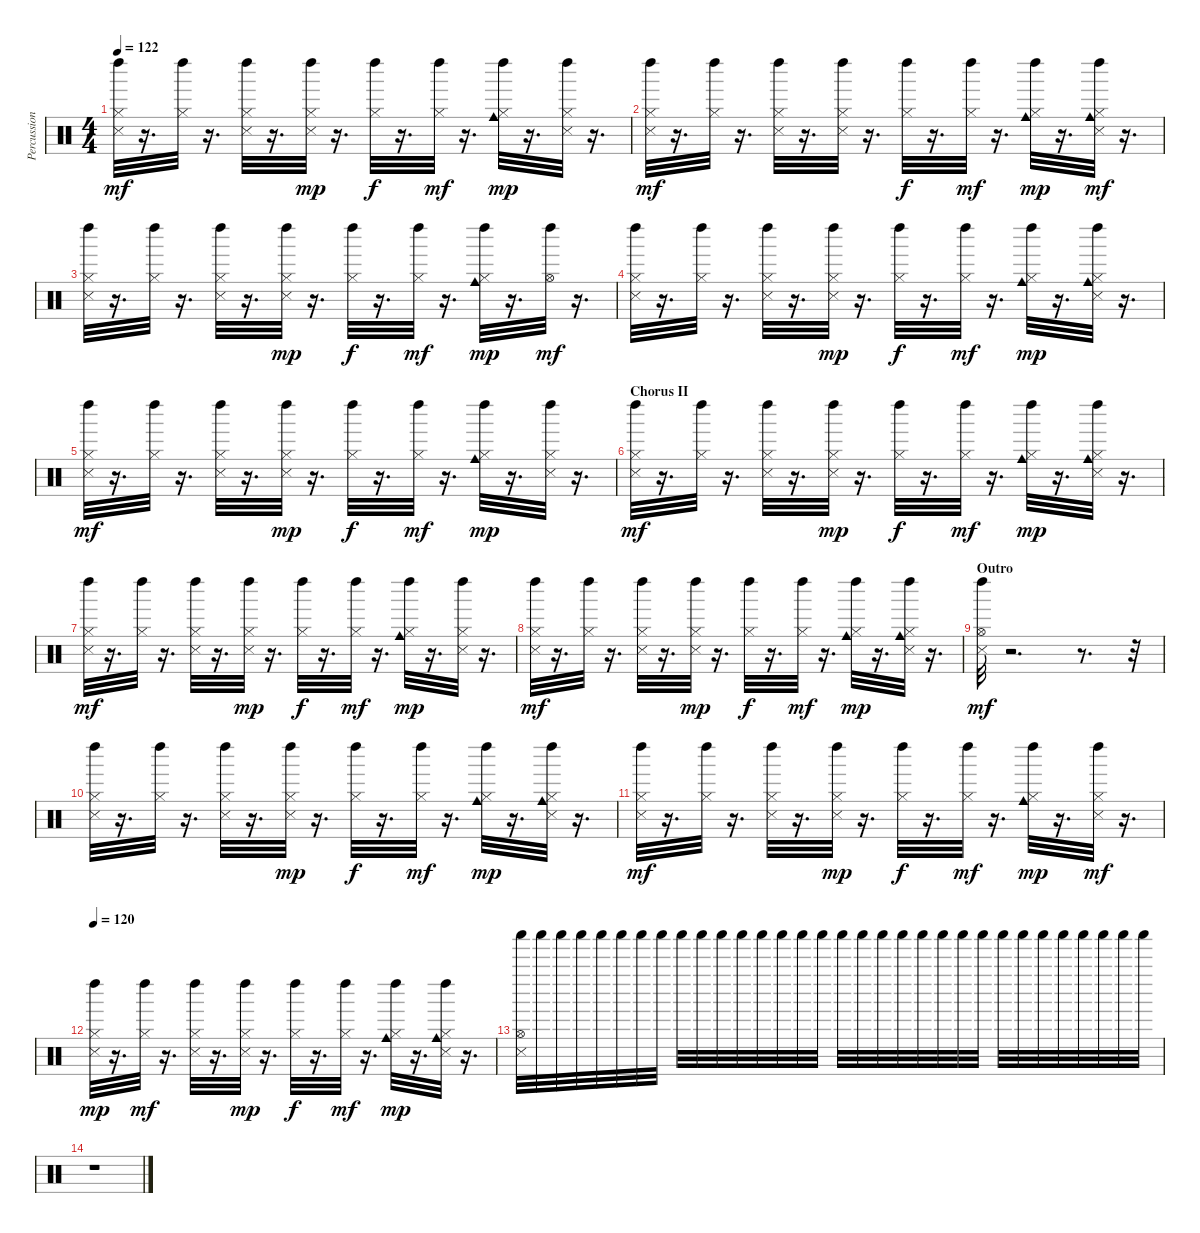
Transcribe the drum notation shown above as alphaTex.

\track ("Percussion" "Percussion") {instrument percussion}
\staff {score}
\articulation defaults
\ts (4 4)
\tempo 122
\clef neutral
\ks c
("Metronome (hit)" "Hi-Hat (closed)" "Left Maraca (hit)").32{dy mf} r.16{d} ("Hi-Hat (closed)" "Left Maraca (hit)").32 r.16{d} ("Snare (side stick) 3" "Hi-Hat (closed)" "Left Maraca (hit)").32 r.16{d} ("Metronome (hit)" "Hi-Hat (closed)" "Left Maraca (hit)").32{dy mp} r.16{d} ("Hi-Hat (closed)" "Left Maraca (hit)").32{dy f} r.16{d} ("Hi-Hat (closed)" "Left Maraca (hit)").32{dy mf} r.16{d} ("Cowbell medium (hit)" "Hi-Hat (closed)" "Left Maraca (hit)").32{dy mp} r.16{d} ("Metronome (hit)" "Hi-Hat (closed)" "Left Maraca (hit)").32 r.16{d} |
("Hi-Hat (closed)" "Left Maraca (hit)" "Metronome (hit)").32{dy mf} r.16{d} ("Hi-Hat (closed)" "Left Maraca (hit)").32 r.16{d} ("Hi-Hat (closed)" "Snare (side stick) 3" "Left Maraca (hit)").32 r.16{d} ("Hi-Hat (closed)" "Left Maraca (hit)" "Metronome (hit)").32 r.16{d} ("Hi-Hat (closed)" "Left Maraca (hit)").32{dy f} r.16{d} ("Hi-Hat (closed)" "Left Maraca (hit)").32{dy mf} r.16{d} ("Hi-Hat (closed)" "Cowbell medium (hit)" "Left Maraca (hit)").32{dy mp} r.16{d} ("Hi-Hat (closed)" "Cowbell medium (hit)" "Left Maraca (hit)" "Metronome (hit)").32{dy mf} r.16{d} |
("Metronome (hit)" "Left Maraca (hit)" "Hi-Hat (closed)").32 r.16{d} ("Left Maraca (hit)" "Hi-Hat (closed)").32 r.16{d} ("Snare (side stick) 3" "Left Maraca (hit)" "Hi-Hat (closed)").32 r.16{d} ("Metronome (hit)" "Left Maraca (hit)" "Hi-Hat (closed)").32{dy mp} r.16{d} ("Left Maraca (hit)" "Hi-Hat (closed)").32{dy f} r.16{d} ("Left Maraca (hit)" "Hi-Hat (closed)").32{dy mf} r.16{d} ("Cowbell medium (hit)" "Left Maraca (hit)" "Hi-Hat (closed)").32{dy mp} r.16{d} ("Left Maraca (hit)" "Hi-Hat (open)").32{dy mf} r.16{d} |
("Hi-Hat (closed)" "Metronome (hit)" "Left Maraca (hit)").32 r.16{d} ("Hi-Hat (closed)" "Left Maraca (hit)").32 r.16{d} ("Hi-Hat (closed)" "Snare (side stick) 3" "Left Maraca (hit)").32 r.16{d} ("Hi-Hat (closed)" "Metronome (hit)" "Left Maraca (hit)").32{dy mp} r.16{d} ("Hi-Hat (closed)" "Left Maraca (hit)").32{dy f} r.16{d} ("Hi-Hat (closed)" "Left Maraca (hit)").32{dy mf} r.16{d} ("Hi-Hat (closed)" "Cowbell medium (hit)" "Left Maraca (hit)").32{dy mp} r.16{d} ("Hi-Hat (closed)" "Cowbell medium (hit)" "Metronome (hit)" "Left Maraca (hit)").32 r.16{d} |
("Metronome (hit)" "Left Maraca (hit)" "Hi-Hat (closed)").32{dy mf} r.16{d} ("Left Maraca (hit)" "Hi-Hat (closed)").32 r.16{d} ("Snare (side stick) 3" "Left Maraca (hit)" "Hi-Hat (closed)").32 r.16{d} ("Metronome (hit)" "Left Maraca (hit)" "Hi-Hat (closed)").32{dy mp} r.16{d} ("Left Maraca (hit)" "Hi-Hat (closed)").32{dy f} r.16{d} ("Left Maraca (hit)" "Hi-Hat (closed)").32{dy mf} r.16{d} ("Cowbell medium (hit)" "Left Maraca (hit)" "Hi-Hat (closed)").32{dy mp} r.16{d} ("Metronome (hit)" "Left Maraca (hit)" "Hi-Hat (closed)").32 r.16{d} |
\section ("" "Chorus II")
("Metronome (hit)" "Hi-Hat (closed)" "Left Maraca (hit)").32{dy mf} r.16{d} ("Hi-Hat (closed)" "Left Maraca (hit)").32 r.16{d} ("Hi-Hat (closed)" "Snare (side stick) 3" "Left Maraca (hit)").32 r.16{d} ("Metronome (hit)" "Hi-Hat (closed)" "Left Maraca (hit)").32{dy mp} r.16{d} ("Hi-Hat (closed)" "Left Maraca (hit)").32{dy f} r.16{d} ("Hi-Hat (closed)" "Left Maraca (hit)").32{dy mf} r.16{d} ("Hi-Hat (closed)" "Cowbell medium (hit)" "Left Maraca (hit)").32{dy mp} r.16{d} ("Metronome (hit)" "Hi-Hat (closed)" "Cowbell medium (hit)" "Left Maraca (hit)").32 r.16{d} |
("Metronome (hit)" "Hi-Hat (closed)" "Left Maraca (hit)").32{dy mf} r.16{d} ("Hi-Hat (closed)" "Left Maraca (hit)").32 r.16{d} ("Snare (side stick) 3" "Hi-Hat (closed)" "Left Maraca (hit)").32 r.16{d} ("Metronome (hit)" "Hi-Hat (closed)" "Left Maraca (hit)").32{dy mp} r.16{d} ("Hi-Hat (closed)" "Left Maraca (hit)").32{dy f} r.16{d} ("Hi-Hat (closed)" "Left Maraca (hit)").32{dy mf} r.16{d} ("Cowbell medium (hit)" "Hi-Hat (closed)" "Left Maraca (hit)").32{dy mp} r.16{d} ("Metronome (hit)" "Hi-Hat (closed)" "Left Maraca (hit)").32 r.16{d} |
("Metronome (hit)" "Hi-Hat (closed)" "Left Maraca (hit)").32{dy mf} r.16{d} ("Hi-Hat (closed)" "Left Maraca (hit)").32 r.16{d} ("Hi-Hat (closed)" "Snare (side stick) 3" "Left Maraca (hit)").32 r.16{d} ("Metronome (hit)" "Hi-Hat (closed)" "Left Maraca (hit)").32{dy mp} r.16{d} ("Hi-Hat (closed)" "Left Maraca (hit)").32{dy f} r.16{d} ("Hi-Hat (closed)" "Left Maraca (hit)").32{dy mf} r.16{d} ("Hi-Hat (closed)" "Cowbell medium (hit)" "Left Maraca (hit)").32{dy mp} r.16{d} ("Metronome (hit)" "Hi-Hat (closed)" "Cowbell medium (hit)" "Left Maraca (hit)").32 r.16{d} |
\section ("" "Outro")
("Metronome (hit)" "Left Maraca (hit)" "Hi-Hat (open)").32{dy mf} r.2{d} r.8{d} r.32 |
("Left Maraca (hit)" "Metronome (hit)" "Hi-Hat (closed)").32 r.16{d} ("Left Maraca (hit)" "Hi-Hat (closed)").32 r.16{d} ("Left Maraca (hit)" "Hi-Hat (closed)" "Snare (side stick) 3").32 r.16{d} ("Left Maraca (hit)" "Metronome (hit)" "Hi-Hat (closed)").32{dy mp} r.16{d} ("Left Maraca (hit)" "Hi-Hat (closed)").32{dy f} r.16{d} ("Left Maraca (hit)" "Hi-Hat (closed)").32{dy mf} r.16{d} ("Left Maraca (hit)" "Hi-Hat (closed)" "Cowbell medium (hit)").32{dy mp} r.16{d} ("Left Maraca (hit)" "Metronome (hit)" "Hi-Hat (closed)" "Cowbell medium (hit)").32 r.16{d} |
("Metronome (hit)" "Hi-Hat (closed)" "Left Maraca (hit)").32{dy mf} r.16{d} ("Hi-Hat (closed)" "Left Maraca (hit)").32 r.16{d} ("Snare (side stick) 3" "Hi-Hat (closed)" "Left Maraca (hit)").32 r.16{d} ("Metronome (hit)" "Hi-Hat (closed)" "Left Maraca (hit)").32{dy mp} r.16{d} ("Hi-Hat (closed)" "Left Maraca (hit)").32{dy f} r.16{d} ("Hi-Hat (closed)" "Left Maraca (hit)").32{dy mf} r.16{d} ("Cowbell medium (hit)" "Hi-Hat (closed)" "Left Maraca (hit)").32{dy mp} r.16{d} ("Hi-Hat (closed)" "Left Maraca (hit)" "Metronome (hit)").32{dy mf} r.16{d} |
\tempo 120
("Hi-Hat (closed)" "Metronome (hit)" "Left Maraca (hit)").32{dy mp} r.16{d} ("Hi-Hat (closed)" "Left Maraca (hit)").32{dy mf} r.16{d} ("Hi-Hat (closed)" "Snare (side stick) 3" "Left Maraca (hit)").32 r.16{d} ("Hi-Hat (closed)" "Metronome (hit)" "Left Maraca (hit)").32{dy mp} r.16{d} ("Hi-Hat (closed)" "Left Maraca (hit)").32{dy f} r.16{d} ("Hi-Hat (closed)" "Left Maraca (hit)").32{dy mf} r.16{d} ("Hi-Hat (closed)" "Cowbell medium (hit)" "Left Maraca (hit)").32{dy mp} r.16{d} ("Hi-Hat (closed)" "Cowbell medium (hit)" "Metronome (hit)" "Left Maraca (hit)").32 r.16{d} |
("Shaker (hit)" "Hi-Hat (open)" "Metronome (hit)").32 "Shaker (hit)".32 "Shaker (hit)".32 "Shaker (hit)".32 "Shaker (hit)".32 "Shaker (hit)".32 "Shaker (hit)".32 "Shaker (hit)".32 "Shaker (hit)".32 "Shaker (hit)".32 "Shaker (hit)".32 "Shaker (hit)".32 "Shaker (hit)".32 "Shaker (hit)".32 "Shaker (hit)".32 "Shaker (hit)".32 "Shaker (hit)".32 "Shaker (hit)".32 "Shaker (hit)".32 "Shaker (hit)".32 "Shaker (hit)".32 "Shaker (hit)".32 "Shaker (hit)".32 "Shaker (hit)".32 "Shaker (hit)".32 "Shaker (hit)".32 "Shaker (hit)".32 "Shaker (hit)".32 "Shaker (hit)".32 "Shaker (hit)".32 "Shaker (hit)".32 "Shaker (hit)".32 |
r.1
